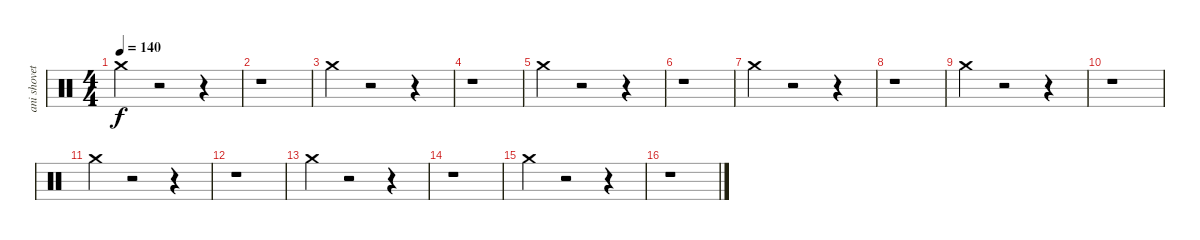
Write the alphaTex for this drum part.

\track ("ani shovet! (itamar)" "ani shovet") {instrument percussion}
\staff {score}
\articulation defaults
\ts (4 4)
\tempo 140
\clef neutral
\ks c "Crash medium (hit)".4{dy f}
r.2 r.4 |
r.1 |
"Crash medium (hit)".4 r.2 r.4 |
r.1 |
"Crash medium (hit)".4 r.2 r.4 |
r.1 |
"Crash medium (hit)".4 r.2 r.4 |
r.1 |
"Crash medium (hit)".4 r.2 r.4 |
r.1 |
"Crash medium (hit)".4 r.2 r.4 |
r.1 |
"Crash medium (hit)".4 r.2 r.4 |
r.1 |
"Crash medium (hit)".4 r.2 r.4 |
r.1
